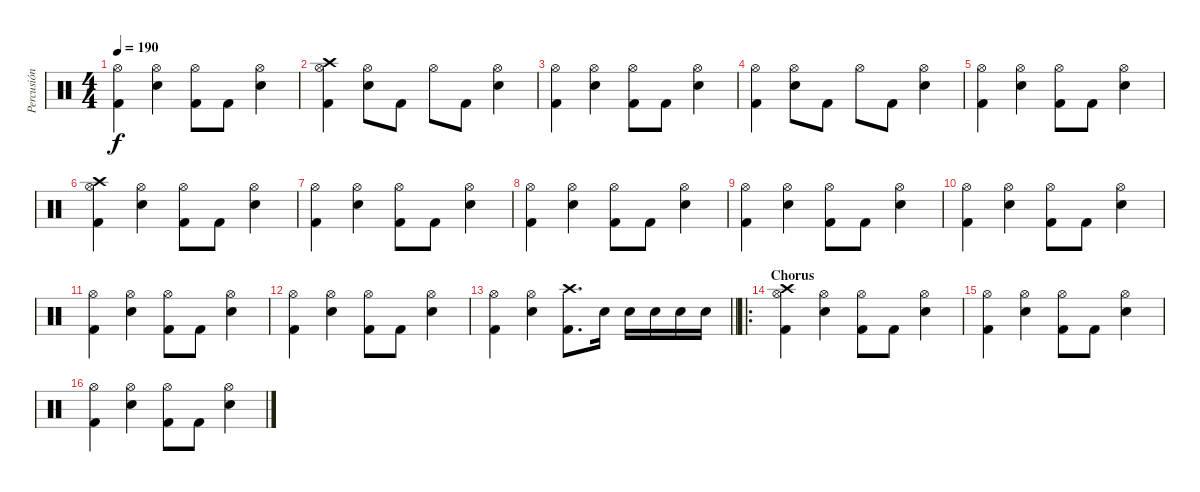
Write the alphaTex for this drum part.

\track ("Percusión" "Percusión") {instrument percussion}
\staff {score}
\articulation defaults
\ts (4 4)
\tempo 190
\clef neutral
\ks c
("Hi-Hat (open)" "Kick (hit) 2").4{dy f} ("Hi-Hat (open)" "Electric Snare (hit)").4 ("Hi-Hat (open)" "Kick (hit) 2").8 "Kick (hit) 2".8 ("Hi-Hat (open)" "Electric Snare (hit)").4 |
("Crash high (hit)" "Hi-Hat (open)" "Kick (hit) 2").4 ("Hi-Hat (open)" "Electric Snare (hit)").8 "Kick (hit) 2".8 "Hi-Hat (open)".8 "Kick (hit) 2".8 ("Hi-Hat (open)" "Electric Snare (hit)").4 |
("Hi-Hat (open)" "Kick (hit) 2").4 ("Hi-Hat (open)" "Electric Snare (hit)").4 ("Hi-Hat (open)" "Kick (hit) 2").8 "Kick (hit) 2".8 ("Hi-Hat (open)" "Electric Snare (hit)").4 |
("Hi-Hat (open)" "Kick (hit) 2").4 ("Hi-Hat (open)" "Electric Snare (hit)").8 "Kick (hit) 2".8 "Hi-Hat (open)".8 "Kick (hit) 2".8 ("Hi-Hat (open)" "Electric Snare (hit)").4 |
("Hi-Hat (open)" "Kick (hit) 2").4 ("Hi-Hat (open)" "Electric Snare (hit)").4 ("Hi-Hat (open)" "Kick (hit) 2").8 "Kick (hit) 2".8 ("Hi-Hat (open)" "Electric Snare (hit)").4 |
("Crash high (hit)" "Hi-Hat (open)" "Kick (hit) 2").4 ("Hi-Hat (open)" "Electric Snare (hit)").4 ("Hi-Hat (open)" "Kick (hit) 2").8 "Kick (hit) 2".8 ("Hi-Hat (open)" "Electric Snare (hit)").4 |
("Hi-Hat (open)" "Kick (hit) 2").4 ("Hi-Hat (open)" "Electric Snare (hit)").4 ("Hi-Hat (open)" "Kick (hit) 2").8 "Kick (hit) 2".8 ("Hi-Hat (open)" "Electric Snare (hit)").4 |
("Hi-Hat (open)" "Kick (hit) 2").4 ("Hi-Hat (open)" "Electric Snare (hit)").4 ("Hi-Hat (open)" "Kick (hit) 2").8 "Kick (hit) 2".8 ("Hi-Hat (open)" "Electric Snare (hit)").4 |
("Hi-Hat (open)" "Kick (hit) 2").4 ("Hi-Hat (open)" "Electric Snare (hit)").4 ("Hi-Hat (open)" "Kick (hit) 2").8 "Kick (hit) 2".8 ("Hi-Hat (open)" "Electric Snare (hit)").4 |
("Hi-Hat (open)" "Kick (hit) 2").4 ("Hi-Hat (open)" "Electric Snare (hit)").4 ("Hi-Hat (open)" "Kick (hit) 2").8 "Kick (hit) 2".8 ("Hi-Hat (open)" "Electric Snare (hit)").4 |
("Hi-Hat (open)" "Kick (hit) 2").4 ("Hi-Hat (open)" "Electric Snare (hit)").4 ("Hi-Hat (open)" "Kick (hit) 2").8 "Kick (hit) 2".8 ("Hi-Hat (open)" "Electric Snare (hit)").4 |
("Hi-Hat (open)" "Kick (hit) 2").4 ("Hi-Hat (open)" "Electric Snare (hit)").4 ("Hi-Hat (open)" "Kick (hit) 2").8 "Kick (hit) 2".8 ("Hi-Hat (open)" "Electric Snare (hit)").4 |
\barLineRight lightlight
("Hi-Hat (open)" "Kick (hit) 2").4 ("Hi-Hat (open)" "Electric Snare (hit)").4 ("Crash high (hit)" "Kick (hit) 2").8{d} "Electric Snare (hit)".16 "Electric Snare (hit)".16 "Electric Snare (hit)".16 "Electric Snare (hit)".16 "Electric Snare (hit)".16 |
\ro
\section ("" "Chorus")
("Crash high (hit)" "Hi-Hat (open)" "Kick (hit) 2").4 ("Hi-Hat (open)" "Electric Snare (hit)").4 ("Hi-Hat (open)" "Kick (hit) 2").8 "Kick (hit) 2".8 ("Hi-Hat (open)" "Electric Snare (hit)").4 |
("Hi-Hat (open)" "Kick (hit) 2").4 ("Hi-Hat (open)" "Electric Snare (hit)").4 ("Hi-Hat (open)" "Kick (hit) 2").8 "Kick (hit) 2".8 ("Hi-Hat (open)" "Electric Snare (hit)").4 |
("Hi-Hat (open)" "Kick (hit) 2").4 ("Hi-Hat (open)" "Electric Snare (hit)").4 ("Hi-Hat (open)" "Kick (hit) 2").8 "Kick (hit) 2".8 ("Hi-Hat (open)" "Electric Snare (hit)").4
